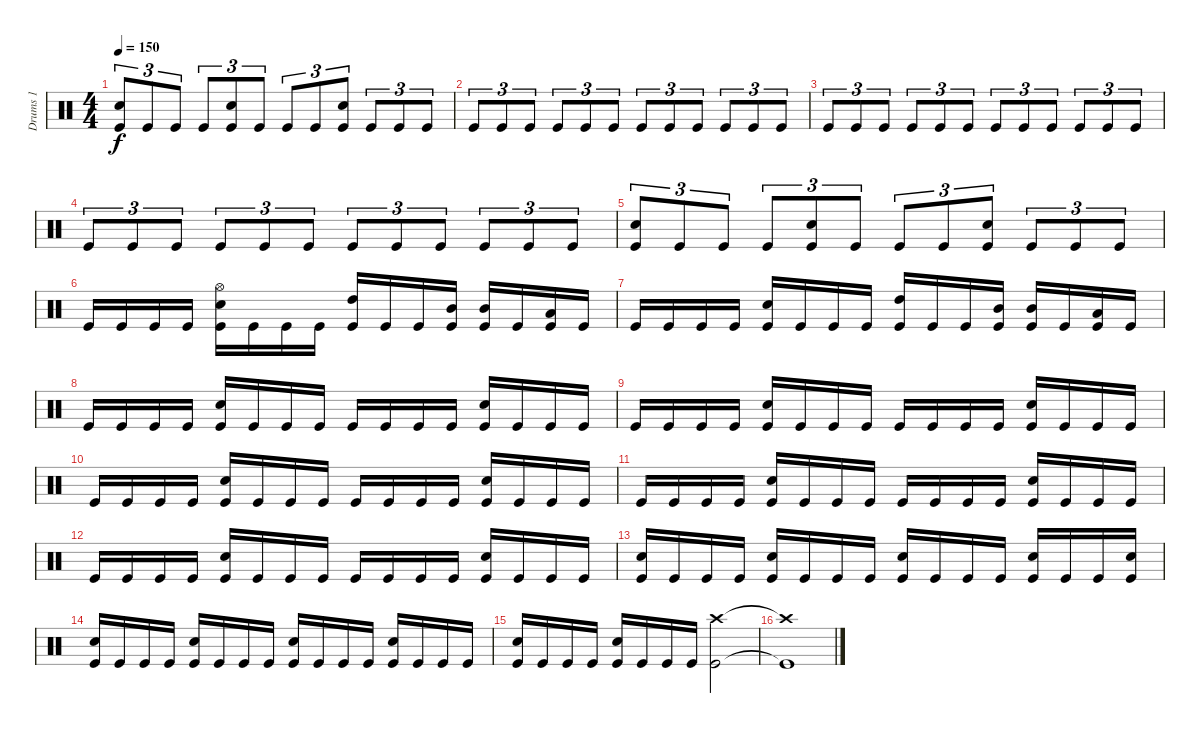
\track ("Drums 1" "Drums 1") {instrument percussion}
\staff {score}
\articulation defaults
\ts (4 4)
\tempo 150
\clef neutral
\ks c
("Snare (hit) 2" "Kick (hit)").8{tu (3 2) dy f} "Kick (hit)".8{tu (3 2)} "Kick (hit)".8{tu (3 2)} "Kick (hit)".8{tu (3 2)} ("Snare (hit) 2" "Kick (hit)").8{tu (3 2)} "Kick (hit)".8{tu (3 2)} "Kick (hit)".8{tu (3 2)} "Kick (hit)".8{tu (3 2)} ("Snare (hit) 2" "Kick (hit)").8{tu (3 2)} "Kick (hit)".8{tu (3 2)} "Kick (hit)".8{tu (3 2)} "Kick (hit)".8{tu (3 2)} |
"Kick (hit)".8{tu (3 2)} "Kick (hit)".8{tu (3 2)} "Kick (hit)".8{tu (3 2)} "Kick (hit)".8{tu (3 2)} "Kick (hit)".8{tu (3 2)} "Kick (hit)".8{tu (3 2)} "Kick (hit)".8{tu (3 2)} "Kick (hit)".8{tu (3 2)} "Kick (hit)".8{tu (3 2)} "Kick (hit)".8{tu (3 2)} "Kick (hit)".8{tu (3 2)} "Kick (hit)".8{tu (3 2)} |
"Kick (hit)".8{tu (3 2)} "Kick (hit)".8{tu (3 2)} "Kick (hit)".8{tu (3 2)} "Kick (hit)".8{tu (3 2)} "Kick (hit)".8{tu (3 2)} "Kick (hit)".8{tu (3 2)} "Kick (hit)".8{tu (3 2)} "Kick (hit)".8{tu (3 2)} "Kick (hit)".8{tu (3 2)} "Kick (hit)".8{tu (3 2)} "Kick (hit)".8{tu (3 2)} "Kick (hit)".8{tu (3 2)} |
"Kick (hit)".8{tu (3 2)} "Kick (hit)".8{tu (3 2)} "Kick (hit)".8{tu (3 2)} "Kick (hit)".8{tu (3 2)} "Kick (hit)".8{tu (3 2)} "Kick (hit)".8{tu (3 2)} "Kick (hit)".8{tu (3 2)} "Kick (hit)".8{tu (3 2)} "Kick (hit)".8{tu (3 2)} "Kick (hit)".8{tu (3 2)} "Kick (hit)".8{tu (3 2)} "Kick (hit)".8{tu (3 2)} |
("Snare (hit) 2" "Kick (hit)").8{tu (3 2)} "Kick (hit)".8{tu (3 2)} "Kick (hit)".8{tu (3 2)} "Kick (hit)".8{tu (3 2)} ("Snare (hit) 2" "Kick (hit)").8{tu (3 2)} "Kick (hit)".8{tu (3 2)} "Kick (hit)".8{tu (3 2)} "Kick (hit)".8{tu (3 2)} ("Snare (hit) 2" "Kick (hit)").8{tu (3 2)} "Kick (hit)".8{tu (3 2)} "Kick (hit)".8{tu (3 2)} "Kick (hit)".8{tu (3 2)} |
"Kick (hit)".16 "Kick (hit)".16 "Kick (hit)".16 "Kick (hit)".16 ("Hi-Hat (open)" "Snare (hit) 2" "Kick (hit)").16 "Kick (hit)".16 "Kick (hit)".16 "Kick (hit)".16 ("High Tom (hit)" "Kick (hit)").16 "Kick (hit)".16 "Kick (hit)".16 ("Mid Tom (hit)" "Kick (hit)").16 ("Mid Tom (hit)" "Kick (hit)").16 "Kick (hit)".16 ("Low Tom (hit)" "Kick (hit)").16 "Kick (hit)".16 |
"Kick (hit)".16 "Kick (hit)".16 "Kick (hit)".16 "Kick (hit)".16 ("Snare (hit) 2" "Kick (hit)").16 "Kick (hit)".16 "Kick (hit)".16 "Kick (hit)".16 ("High Tom (hit)" "Kick (hit)").16 "Kick (hit)".16 "Kick (hit)".16 ("Mid Tom (hit)" "Kick (hit)").16 ("Mid Tom (hit)" "Kick (hit)").16 "Kick (hit)".16 ("Low Tom (hit)" "Kick (hit)").16 "Kick (hit)".16 |
"Kick (hit)".16 "Kick (hit)".16 "Kick (hit)".16 "Kick (hit)".16 ("Snare (hit) 2" "Kick (hit)").16 "Kick (hit)".16 "Kick (hit)".16 "Kick (hit)".16 "Kick (hit)".16 "Kick (hit)".16 "Kick (hit)".16 "Kick (hit)".16 ("Snare (hit) 2" "Kick (hit)").16 "Kick (hit)".16 "Kick (hit)".16 "Kick (hit)".16 |
"Kick (hit)".16 "Kick (hit)".16 "Kick (hit)".16 "Kick (hit)".16 ("Snare (hit) 2" "Kick (hit)").16 "Kick (hit)".16 "Kick (hit)".16 "Kick (hit)".16 "Kick (hit)".16 "Kick (hit)".16 "Kick (hit)".16 "Kick (hit)".16 ("Snare (hit) 2" "Kick (hit)").16 "Kick (hit)".16 "Kick (hit)".16 "Kick (hit)".16 |
"Kick (hit)".16 "Kick (hit)".16 "Kick (hit)".16 "Kick (hit)".16 ("Snare (hit) 2" "Kick (hit)").16 "Kick (hit)".16 "Kick (hit)".16 "Kick (hit)".16 "Kick (hit)".16 "Kick (hit)".16 "Kick (hit)".16 "Kick (hit)".16 ("Snare (hit) 2" "Kick (hit)").16 "Kick (hit)".16 "Kick (hit)".16 "Kick (hit)".16 |
"Kick (hit)".16 "Kick (hit)".16 "Kick (hit)".16 "Kick (hit)".16 ("Snare (hit) 2" "Kick (hit)").16 "Kick (hit)".16 "Kick (hit)".16 "Kick (hit)".16 "Kick (hit)".16 "Kick (hit)".16 "Kick (hit)".16 "Kick (hit)".16 ("Snare (hit) 2" "Kick (hit)").16 "Kick (hit)".16 "Kick (hit)".16 "Kick (hit)".16 |
"Kick (hit)".16 "Kick (hit)".16 "Kick (hit)".16 "Kick (hit)".16 ("Snare (hit) 2" "Kick (hit)").16 "Kick (hit)".16 "Kick (hit)".16 "Kick (hit)".16 "Kick (hit)".16 "Kick (hit)".16 "Kick (hit)".16 "Kick (hit)".16 ("Snare (hit) 2" "Kick (hit)").16 "Kick (hit)".16 "Kick (hit)".16 "Kick (hit)".16 |
("Snare (hit) 2" "Kick (hit)").16 "Kick (hit)".16 "Kick (hit)".16 "Kick (hit)".16 ("Snare (hit) 2" "Kick (hit)").16 "Kick (hit)".16 "Kick (hit)".16 "Kick (hit)".16 ("Snare (hit) 2" "Kick (hit)").16 "Kick (hit)".16 "Kick (hit)".16 "Kick (hit)".16 ("Snare (hit) 2" "Kick (hit)").16 "Kick (hit)".16 "Kick (hit)".16 ("Snare (hit) 2" "Kick (hit)").16 |
("Snare (hit) 2" "Kick (hit)").16 "Kick (hit)".16 "Kick (hit)".16 "Kick (hit)".16 ("Snare (hit) 2" "Kick (hit)").16 "Kick (hit)".16 "Kick (hit)".16 "Kick (hit)".16 ("Snare (hit) 2" "Kick (hit)").16 "Kick (hit)".16 "Kick (hit)".16 "Kick (hit)".16 ("Snare (hit) 2" "Kick (hit)").16 "Kick (hit)".16 "Kick (hit)".16 "Kick (hit)".16 |
("Snare (hit) 2" "Kick (hit)").16 "Kick (hit)".16 "Kick (hit)".16 "Kick (hit)".16 ("Snare (hit) 2" "Kick (hit)").16 "Kick (hit)".16 "Kick (hit)".16 "Kick (hit)".16 ("Crash high (hit)" "Kick (hit)").2 |
("Crash high (hit)"{t} "Kick (hit)"{t}).1
